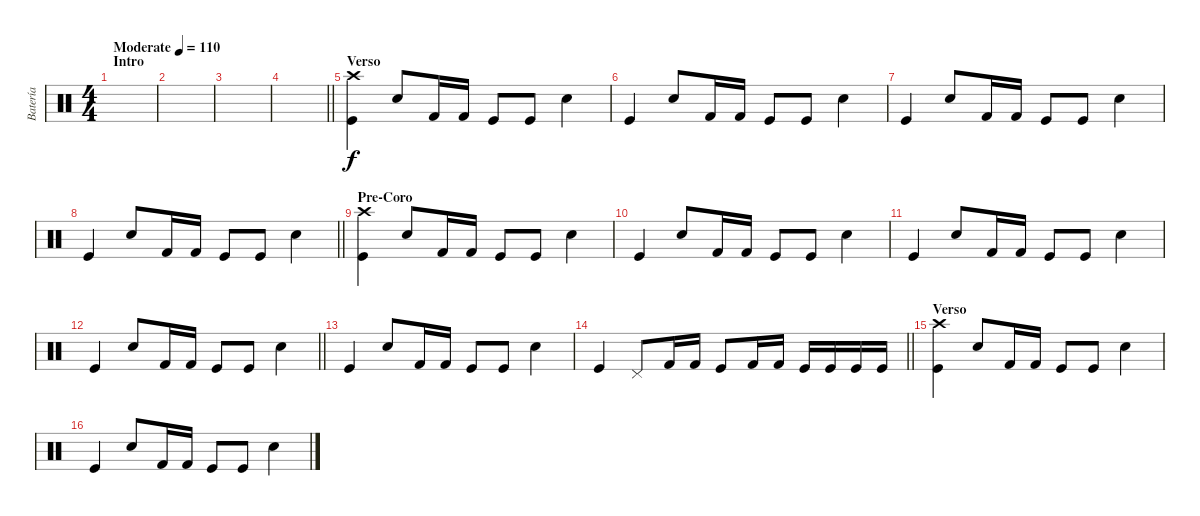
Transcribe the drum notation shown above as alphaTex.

\track ("Batería" "Batería") {instrument percussion}
\staff {score}
\articulation defaults
\ts (4 4)
\section ("" "Intro")
\tempo (110 "Moderate")
\clef neutral
\ks c
|
|
|
\barLineRight lightlight
|
\section ("" "Verso")
("Kick (hit)" "Crash high (hit)").4 "Electric Snare (hit)".8 "Kick (hit) 2".16 "Kick (hit) 2".16 "Kick (hit)".8 "Kick (hit)".8 "Electric Snare (hit)".4 |
"Kick (hit)".4 "Electric Snare (hit)".8 "Kick (hit) 2".16 "Kick (hit) 2".16 "Kick (hit)".8 "Kick (hit)".8 "Electric Snare (hit)".4 |
"Kick (hit)".4 "Electric Snare (hit)".8 "Kick (hit) 2".16 "Kick (hit) 2".16 "Kick (hit)".8 "Kick (hit)".8 "Electric Snare (hit)".4 |
\barLineRight lightlight "Kick (hit)".4 "Electric Snare (hit)".8 "Kick (hit) 2".16 "Kick (hit) 2".16 "Kick (hit)".8 "Kick (hit)".8 "Electric Snare (hit)".4
|
\section ("" "Pre-Coro")
("Kick (hit)" "Crash high (hit)").4 "Electric Snare (hit)".8 "Kick (hit) 2".16 "Kick (hit) 2".16 "Kick (hit)".8 "Kick (hit)".8 "Electric Snare (hit)".4 |
"Kick (hit)".4 "Electric Snare (hit)".8 "Kick (hit) 2".16 "Kick (hit) 2".16 "Kick (hit)".8 "Kick (hit)".8 "Electric Snare (hit)".4 |
"Kick (hit)".4 "Electric Snare (hit)".8 "Kick (hit) 2".16 "Kick (hit) 2".16 "Kick (hit)".8 "Kick (hit)".8 "Electric Snare (hit)".4 |
\barLineRight lightlight "Kick (hit)".4 "Electric Snare (hit)".8 "Kick (hit) 2".16 "Kick (hit) 2".16 "Kick (hit)".8 "Kick (hit)".8 "Electric Snare (hit)".4
|
"Kick (hit)".4 "Electric Snare (hit)".8 "Kick (hit) 2".16 "Kick (hit) 2".16 "Kick (hit)".8 "Kick (hit)".8 "Electric Snare (hit)".4 |
\barLineRight lightlight "Kick (hit)".4 "Pedal Hi-Hat (hit)".8 "Kick (hit) 2".16 "Kick (hit) 2".16 "Kick (hit)".8 "Kick (hit) 2".16 "Kick (hit) 2".16 "Kick (hit)".16 "Kick (hit)".16 "Kick (hit)".16 "Kick (hit)".16
|
\section ("" "Verso")
("Kick (hit)" "Crash high (hit)").4 "Electric Snare (hit)".8 "Kick (hit) 2".16 "Kick (hit) 2".16 "Kick (hit)".8 "Kick (hit)".8 "Electric Snare (hit)".4 |
"Kick (hit)".4 "Electric Snare (hit)".8 "Kick (hit) 2".16 "Kick (hit) 2".16 "Kick (hit)".8 "Kick (hit)".8 "Electric Snare (hit)".4
